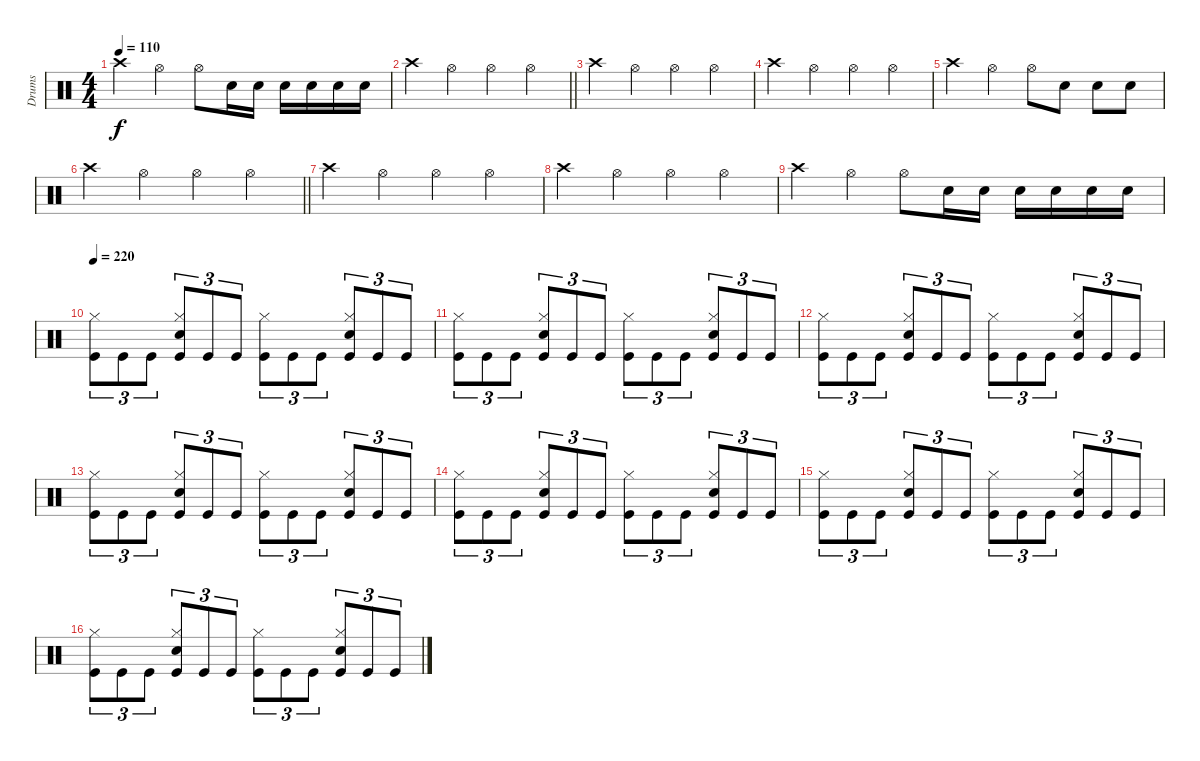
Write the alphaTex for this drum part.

\track ("Drums" "Drums") {instrument percussion}
\staff {score}
\articulation defaults
\ts (4 4)
\tempo 110
\clef neutral
\ks c "Crash high (hit)".4{dy f} "Hi-Hat (open)".4 "Hi-Hat (open)".8 "Electric Snare (hit)".16 "Electric Snare (hit)".16 "Electric Snare (hit)".16 "Electric Snare (hit)".16 "Electric Snare (hit)".16 "Electric Snare (hit)".16
|
\barLineRight lightlight "Crash high (hit)".4 "Hi-Hat (open)".4 "Hi-Hat (open)".4 "Hi-Hat (open)".4
|
"Crash high (hit)".4 "Hi-Hat (open)".4 "Hi-Hat (open)".4 "Hi-Hat (open)".4 |
"Crash high (hit)".4 "Hi-Hat (open)".4 "Hi-Hat (open)".4 "Hi-Hat (open)".4 |
"Crash high (hit)".4 "Hi-Hat (open)".4 "Hi-Hat (open)".8 "Electric Snare (hit)".8 "Electric Snare (hit)".8 "Electric Snare (hit)".8 |
\barLineRight lightlight "Crash high (hit)".4 "Hi-Hat (open)".4 "Hi-Hat (open)".4 "Hi-Hat (open)".4
|
"Crash high (hit)".4 "Hi-Hat (open)".4 "Hi-Hat (open)".4 "Hi-Hat (open)".4 |
"Crash high (hit)".4 "Hi-Hat (open)".4 "Hi-Hat (open)".4 "Hi-Hat (open)".4 |
"Crash high (hit)".4 "Hi-Hat (open)".4 "Hi-Hat (open)".8 "Electric Snare (hit)".16 "Electric Snare (hit)".16 "Electric Snare (hit)".16 "Electric Snare (hit)".16 "Electric Snare (hit)".16 "Electric Snare (hit)".16 |
\tempo 220
("Hi-Hat (closed)" "Kick (hit)").8{tu (3 2)} "Kick (hit)".8{tu (3 2)} "Kick (hit)".8{tu (3 2)} ("Electric Snare (hit)" "Hi-Hat (closed)" "Kick (hit)").8{tu (3 2)} "Kick (hit)".8{tu (3 2)} "Kick (hit)".8{tu (3 2)} ("Hi-Hat (closed)" "Kick (hit)").8{tu (3 2)} "Kick (hit)".8{tu (3 2)} "Kick (hit)".8{tu (3 2)} ("Electric Snare (hit)" "Hi-Hat (closed)" "Kick (hit)").8{tu (3 2)} "Kick (hit)".8{tu (3 2)} "Kick (hit)".8{tu (3 2)} |
("Hi-Hat (closed)" "Kick (hit)").8{tu (3 2)} "Kick (hit)".8{tu (3 2)} "Kick (hit)".8{tu (3 2)} ("Electric Snare (hit)" "Hi-Hat (closed)" "Kick (hit)").8{tu (3 2)} "Kick (hit)".8{tu (3 2)} "Kick (hit)".8{tu (3 2)} ("Hi-Hat (closed)" "Kick (hit)").8{tu (3 2)} "Kick (hit)".8{tu (3 2)} "Kick (hit)".8{tu (3 2)} ("Electric Snare (hit)" "Hi-Hat (closed)" "Kick (hit)").8{tu (3 2)} "Kick (hit)".8{tu (3 2)} "Kick (hit)".8{tu (3 2)} |
("Hi-Hat (closed)" "Kick (hit)").8{tu (3 2)} "Kick (hit)".8{tu (3 2)} "Kick (hit)".8{tu (3 2)} ("Electric Snare (hit)" "Hi-Hat (closed)" "Kick (hit)").8{tu (3 2)} "Kick (hit)".8{tu (3 2)} "Kick (hit)".8{tu (3 2)} ("Hi-Hat (closed)" "Kick (hit)").8{tu (3 2)} "Kick (hit)".8{tu (3 2)} "Kick (hit)".8{tu (3 2)} ("Electric Snare (hit)" "Hi-Hat (closed)" "Kick (hit)").8{tu (3 2)} "Kick (hit)".8{tu (3 2)} "Kick (hit)".8{tu (3 2)} |
("Hi-Hat (closed)" "Kick (hit)").8{tu (3 2)} "Kick (hit)".8{tu (3 2)} "Kick (hit)".8{tu (3 2)} ("Electric Snare (hit)" "Hi-Hat (closed)" "Kick (hit)").8{tu (3 2)} "Kick (hit)".8{tu (3 2)} "Kick (hit)".8{tu (3 2)} ("Hi-Hat (closed)" "Kick (hit)").8{tu (3 2)} "Kick (hit)".8{tu (3 2)} "Kick (hit)".8{tu (3 2)} ("Electric Snare (hit)" "Hi-Hat (closed)" "Kick (hit)").8{tu (3 2)} "Kick (hit)".8{tu (3 2)} "Kick (hit)".8{tu (3 2)} |
("Hi-Hat (closed)" "Kick (hit)").8{tu (3 2)} "Kick (hit)".8{tu (3 2)} "Kick (hit)".8{tu (3 2)} ("Electric Snare (hit)" "Hi-Hat (closed)" "Kick (hit)").8{tu (3 2)} "Kick (hit)".8{tu (3 2)} "Kick (hit)".8{tu (3 2)} ("Hi-Hat (closed)" "Kick (hit)").8{tu (3 2)} "Kick (hit)".8{tu (3 2)} "Kick (hit)".8{tu (3 2)} ("Electric Snare (hit)" "Hi-Hat (closed)" "Kick (hit)").8{tu (3 2)} "Kick (hit)".8{tu (3 2)} "Kick (hit)".8{tu (3 2)} |
("Hi-Hat (closed)" "Kick (hit)").8{tu (3 2)} "Kick (hit)".8{tu (3 2)} "Kick (hit)".8{tu (3 2)} ("Electric Snare (hit)" "Hi-Hat (closed)" "Kick (hit)").8{tu (3 2)} "Kick (hit)".8{tu (3 2)} "Kick (hit)".8{tu (3 2)} ("Hi-Hat (closed)" "Kick (hit)").8{tu (3 2)} "Kick (hit)".8{tu (3 2)} "Kick (hit)".8{tu (3 2)} ("Electric Snare (hit)" "Hi-Hat (closed)" "Kick (hit)").8{tu (3 2)} "Kick (hit)".8{tu (3 2)} "Kick (hit)".8{tu (3 2)} |
("Hi-Hat (closed)" "Kick (hit)").8{tu (3 2)} "Kick (hit)".8{tu (3 2)} "Kick (hit)".8{tu (3 2)} ("Electric Snare (hit)" "Hi-Hat (closed)" "Kick (hit)").8{tu (3 2)} "Kick (hit)".8{tu (3 2)} "Kick (hit)".8{tu (3 2)} ("Hi-Hat (closed)" "Kick (hit)").8{tu (3 2)} "Kick (hit)".8{tu (3 2)} "Kick (hit)".8{tu (3 2)} ("Electric Snare (hit)" "Hi-Hat (closed)" "Kick (hit)").8{tu (3 2)} "Kick (hit)".8{tu (3 2)} "Kick (hit)".8{tu (3 2)}
